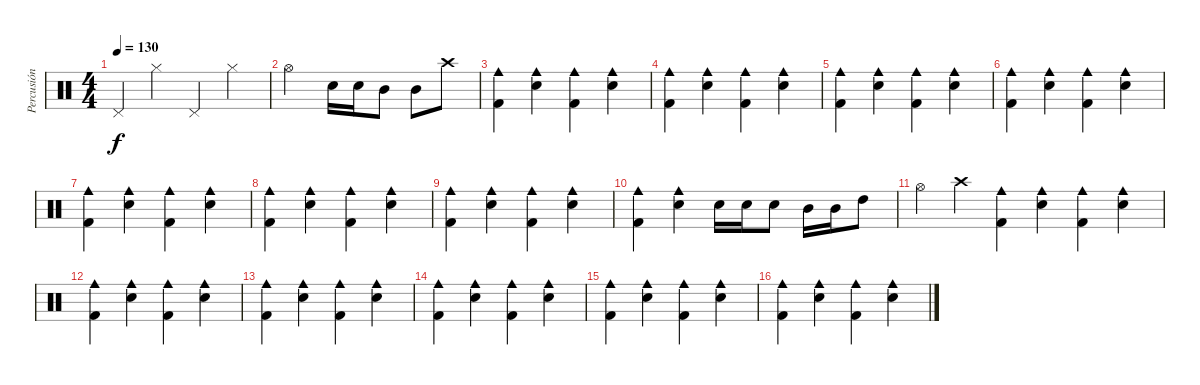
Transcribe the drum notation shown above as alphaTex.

\track ("Percusión" "Percusión") {instrument percussion}
\staff {score}
\articulation defaults
\ts (4 4)
\tempo 130
\clef neutral
\ks c "Pedal Hi-Hat (hit)".4{dy f} "Hi-Hat (closed)".4 "Pedal Hi-Hat (hit)".4 "Hi-Hat (closed)".4
|
"Hi-Hat (open)".2 "Snare (hit) 2".16 "Snare (hit) 2".16 "Mid Tom (hit)".8 "Mid Tom (hit)".8 "Crash high (hit)".8 |
("Cowbell medium (hit)" "Kick (hit) 2").4 ("Cowbell medium (hit)" "Snare (hit) 2").4 ("Cowbell medium (hit)" "Kick (hit) 2").4 ("Cowbell medium (hit)" "Snare (hit) 2").4 |
("Cowbell medium (hit)" "Kick (hit) 2").4 ("Cowbell medium (hit)" "Snare (hit) 2").4 ("Cowbell medium (hit)" "Kick (hit) 2").4 ("Cowbell medium (hit)" "Snare (hit) 2").4 |
("Cowbell medium (hit)" "Kick (hit) 2").4 ("Cowbell medium (hit)" "Snare (hit) 2").4 ("Cowbell medium (hit)" "Kick (hit) 2").4 ("Cowbell medium (hit)" "Snare (hit) 2").4 |
("Cowbell medium (hit)" "Kick (hit) 2").4 ("Cowbell medium (hit)" "Snare (hit) 2").4 ("Cowbell medium (hit)" "Kick (hit) 2").4 ("Cowbell medium (hit)" "Snare (hit) 2").4 |
("Cowbell medium (hit)" "Kick (hit) 2").4 ("Cowbell medium (hit)" "Snare (hit) 2").4 ("Cowbell medium (hit)" "Kick (hit) 2").4 ("Cowbell medium (hit)" "Snare (hit) 2").4 |
("Cowbell medium (hit)" "Kick (hit) 2").4 ("Cowbell medium (hit)" "Snare (hit) 2").4 ("Cowbell medium (hit)" "Kick (hit) 2").4 ("Cowbell medium (hit)" "Snare (hit) 2").4 |
("Cowbell medium (hit)" "Kick (hit) 2").4 ("Cowbell medium (hit)" "Snare (hit) 2").4 ("Cowbell medium (hit)" "Kick (hit) 2").4 ("Cowbell medium (hit)" "Snare (hit) 2").4 |
("Cowbell medium (hit)" "Kick (hit) 2").4 ("Cowbell medium (hit)" "Snare (hit) 2").4 "Snare (hit) 2".16 "Snare (hit) 2".16 "Snare (hit) 2".8 "Mid Tom (hit)".16 "Mid Tom (hit)".16 "High Tom (hit)".8 |
"Hi-Hat (open)".4 "Crash high (hit)".4 ("Cowbell medium (hit)" "Kick (hit) 2").4 ("Cowbell medium (hit)" "Snare (hit) 2").4 ("Cowbell medium (hit)" "Kick (hit) 2").4 ("Cowbell medium (hit)" "Snare (hit) 2").4 |
("Cowbell medium (hit)" "Kick (hit) 2").4 ("Cowbell medium (hit)" "Snare (hit) 2").4 ("Cowbell medium (hit)" "Kick (hit) 2").4 ("Cowbell medium (hit)" "Snare (hit) 2").4 |
("Cowbell medium (hit)" "Kick (hit) 2").4 ("Cowbell medium (hit)" "Snare (hit) 2").4 ("Cowbell medium (hit)" "Kick (hit) 2").4 ("Cowbell medium (hit)" "Snare (hit) 2").4 |
("Cowbell medium (hit)" "Kick (hit) 2").4 ("Cowbell medium (hit)" "Snare (hit) 2").4 ("Cowbell medium (hit)" "Kick (hit) 2").4 ("Cowbell medium (hit)" "Snare (hit) 2").4 |
("Cowbell medium (hit)" "Kick (hit) 2").4 ("Cowbell medium (hit)" "Snare (hit) 2").4 ("Cowbell medium (hit)" "Kick (hit) 2").4 ("Cowbell medium (hit)" "Snare (hit) 2").4 |
("Cowbell medium (hit)" "Kick (hit) 2").4 ("Cowbell medium (hit)" "Snare (hit) 2").4 ("Cowbell medium (hit)" "Kick (hit) 2").4 ("Cowbell medium (hit)" "Snare (hit) 2").4
